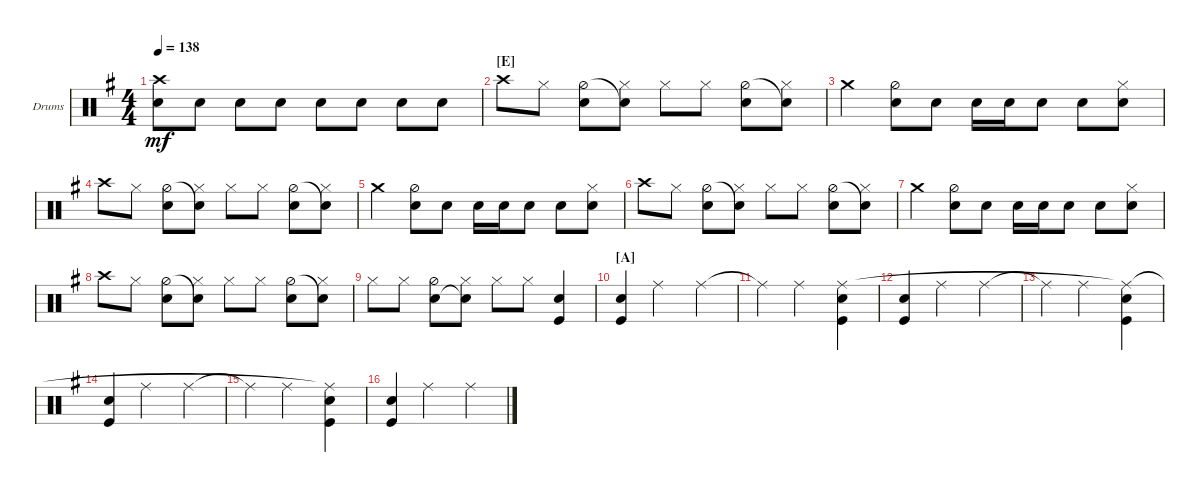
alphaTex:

\defaultSystemsLayout 4
\bracketExtendMode groupsimilarinstruments
\firstSystemTrackNameOrientation horizontal
\otherSystemsTrackNameOrientation horizontal
\track ("Drumkit" "Drums") {instrument percussion}
\staff {score}
\articulation defaults
\ts (4 4)
\tempo 138
\clef neutral
\ks g
("Crash high (hit)" "Snare (hit) 2").8{dy mf} "Snare (hit) 2".8 "Snare (hit) 2".8 "Snare (hit) 2".8 "Snare (hit) 2".8 "Snare (hit) 2".8 "Snare (hit) 2".8 "Snare (hit) 2".8 |
\section ("E" "")
"Crash high (hit)".8 "Hi-Hat (closed)".8 ("Hi-Hat (half)" "Snare (hit) 2").8 ("Snare (hit) 2"{t} "Hi-Hat (closed)").8 "Hi-Hat (closed)".8 "Hi-Hat (closed)".8 ("Hi-Hat (half)" "Snare (hit) 2").8 ("Snare (hit) 2"{t} "Hi-Hat (closed)").8 |
"Crash medium (hit)".4 ("Snare (hit) 2" "Hi-Hat (half)").8 "Snare (hit) 2".8 "Snare (hit) 2".16 "Snare (hit) 2".16 "Snare (hit) 2".8 "Snare (hit) 2".8 ("Snare (hit) 2" "Hi-Hat (closed)").8 |
"Crash high (hit)".8 "Hi-Hat (closed)".8 ("Hi-Hat (half)" "Snare (hit) 2").8 ("Snare (hit) 2"{t} "Hi-Hat (closed)").8 "Hi-Hat (closed)".8 "Hi-Hat (closed)".8 ("Hi-Hat (half)" "Snare (hit) 2").8 ("Snare (hit) 2"{t} "Hi-Hat (closed)").8 |
"Crash medium (hit)".4 ("Snare (hit) 2" "Hi-Hat (half)").8 "Snare (hit) 2".8 "Snare (hit) 2".16 "Snare (hit) 2".16 "Snare (hit) 2".8 "Snare (hit) 2".8 ("Snare (hit) 2" "Hi-Hat (closed)").8 |
"Crash high (hit)".8 "Hi-Hat (closed)".8 ("Hi-Hat (half)" "Snare (hit) 2").8 ("Snare (hit) 2"{t} "Hi-Hat (closed)").8 "Hi-Hat (closed)".8 "Hi-Hat (closed)".8 ("Hi-Hat (half)" "Snare (hit) 2").8 ("Snare (hit) 2"{t} "Hi-Hat (closed)").8 |
"Crash medium (hit)".4 ("Snare (hit) 2" "Hi-Hat (half)").8 "Snare (hit) 2".8 "Snare (hit) 2".16 "Snare (hit) 2".16 "Snare (hit) 2".8 "Snare (hit) 2".8 ("Snare (hit) 2" "Hi-Hat (closed)").8 |
"Crash high (hit)".8 "Hi-Hat (closed)".8 ("Hi-Hat (half)" "Snare (hit) 2").8 ("Snare (hit) 2"{t} "Hi-Hat (closed)").8 "Hi-Hat (closed)".8 "Hi-Hat (closed)".8 ("Hi-Hat (half)" "Snare (hit) 2").8 ("Snare (hit) 2"{t} "Hi-Hat (closed)").8 |
"Hi-Hat (closed)".8 "Hi-Hat (closed)".8 ("Snare (hit) 2" "Hi-Hat (half)").8 ("Snare (hit) 2"{t} "Hi-Hat (closed)").8 "Hi-Hat (closed)".8 "Hi-Hat (closed)".8 ("Snare (hit) 2" "Kick (hit)").4 |
\section ("A" "")
("Snare (hit) 2" "Kick (hit)").4 "Ride (middle)".2 "Ride (middle)".4 |
"Ride (middle)"{t}.4 "Ride (middle)".2 ("Snare (hit) 2" "Kick (hit)" "Ride (middle)").4 |
("Snare (hit) 2" "Kick (hit)").4 "Ride (middle)".2 "Ride (middle)".4 |
"Ride (middle)"{t}.4 "Ride (middle)".2 ("Snare (hit) 2" "Kick (hit)" "Ride (middle)"{t}).4 |
("Snare (hit) 2" "Kick (hit)").4 "Ride (middle)".2 "Ride (middle)".4 |
"Ride (middle)"{t}.4 "Ride (middle)".2 ("Snare (hit) 2" "Kick (hit)" "Ride (middle)"{t}).4 |
("Snare (hit) 2" "Kick (hit)").4 "Ride (middle)".2 "Ride (middle)".4
